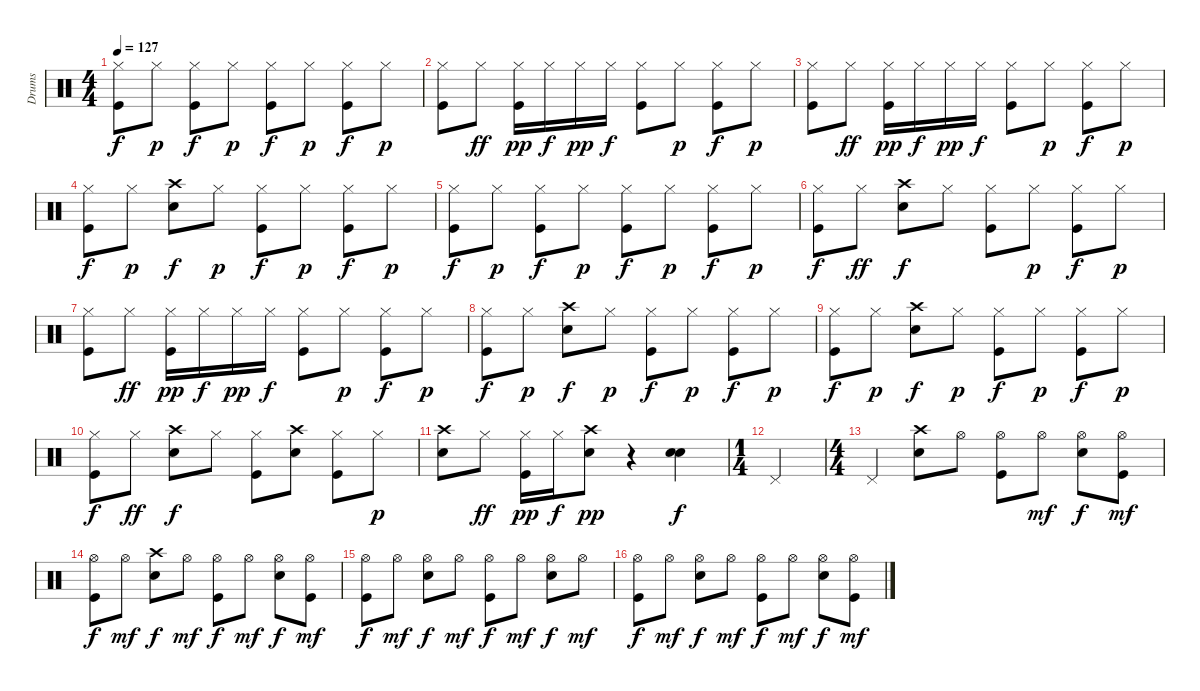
\track ("Drums" "Drums") {instrument percussion}
\staff {score}
\articulation defaults
\ts (4 4)
\tempo 127
\clef neutral
\ks c
("Hi-Hat (closed)" "Kick (hit)").8{dy f} "Hi-Hat (closed)".8{dy p} ("Hi-Hat (closed)" "Kick (hit)").8{dy f} "Hi-Hat (closed)".8{dy p} ("Hi-Hat (closed)" "Kick (hit)").8{dy f} "Hi-Hat (closed)".8{dy p} ("Hi-Hat (closed)" "Kick (hit)").8{dy f} "Hi-Hat (closed)".8{dy p} |
("Hi-Hat (closed)" "Kick (hit)").8 "Hi-Hat (closed)".8{dy ff} ("Hi-Hat (closed)" "Kick (hit)").16{dy pp} "Hi-Hat (closed)".16{dy f} "Hi-Hat (closed)".16{dy pp} "Hi-Hat (closed)".16{dy f} ("Hi-Hat (closed)" "Kick (hit)").8 "Hi-Hat (closed)".8{dy p} ("Hi-Hat (closed)" "Kick (hit)").8{dy f} "Hi-Hat (closed)".8{dy p} |
("Hi-Hat (closed)" "Kick (hit)").8 "Hi-Hat (closed)".8{dy ff} ("Hi-Hat (closed)" "Kick (hit)").16{dy pp} "Hi-Hat (closed)".16{dy f} "Hi-Hat (closed)".16{dy pp} "Hi-Hat (closed)".16{dy f} ("Hi-Hat (closed)" "Kick (hit)").8 "Hi-Hat (closed)".8{dy p} ("Hi-Hat (closed)" "Kick (hit)").8{dy f} "Hi-Hat (closed)".8{dy p} |
("Hi-Hat (closed)" "Kick (hit)").8{dy f} "Hi-Hat (closed)".8{dy p} ("Crash high (hit)" "Snare (hit) 2").8{dy f} "Hi-Hat (closed)".8{dy p} ("Hi-Hat (closed)" "Kick (hit)").8{dy f} "Hi-Hat (closed)".8{dy p} ("Hi-Hat (closed)" "Kick (hit)").8{dy f} "Hi-Hat (closed)".8{dy p} |
("Hi-Hat (closed)" "Kick (hit)").8{dy f} "Hi-Hat (closed)".8{dy p} ("Hi-Hat (closed)" "Kick (hit)").8{dy f} "Hi-Hat (closed)".8{dy p} ("Hi-Hat (closed)" "Kick (hit)").8{dy f} "Hi-Hat (closed)".8{dy p} ("Hi-Hat (closed)" "Kick (hit)").8{dy f} "Hi-Hat (closed)".8{dy p} |
("Hi-Hat (closed)" "Kick (hit)").8{dy f} "Hi-Hat (closed)".8{dy ff} ("Crash high (hit)" "Snare (hit) 2").8{dy f} "Hi-Hat (closed)".8 ("Hi-Hat (closed)" "Kick (hit)").8 "Hi-Hat (closed)".8{dy p} ("Hi-Hat (closed)" "Kick (hit)").8{dy f} "Hi-Hat (closed)".8{dy p} |
("Hi-Hat (closed)" "Kick (hit)").8 "Hi-Hat (closed)".8{dy ff} ("Hi-Hat (closed)" "Kick (hit)").16{dy pp} "Hi-Hat (closed)".16{dy f} "Hi-Hat (closed)".16{dy pp} "Hi-Hat (closed)".16{dy f} ("Hi-Hat (closed)" "Kick (hit)").8 "Hi-Hat (closed)".8{dy p} ("Hi-Hat (closed)" "Kick (hit)").8{dy f} "Hi-Hat (closed)".8{dy p} |
("Hi-Hat (closed)" "Kick (hit)").8{dy f} "Hi-Hat (closed)".8{dy p} ("Crash high (hit)" "Snare (hit) 2").8{dy f} "Hi-Hat (closed)".8{dy p} ("Hi-Hat (closed)" "Kick (hit)").8{dy f} "Hi-Hat (closed)".8{dy p} ("Hi-Hat (closed)" "Kick (hit)").8{dy f} "Hi-Hat (closed)".8{dy p} |
("Hi-Hat (closed)" "Kick (hit)").8{dy f} "Hi-Hat (closed)".8{dy p} ("Crash high (hit)" "Snare (hit) 2").8{dy f} "Hi-Hat (closed)".8{dy p} ("Hi-Hat (closed)" "Kick (hit)").8{dy f} "Hi-Hat (closed)".8{dy p} ("Hi-Hat (closed)" "Kick (hit)").8{dy f} "Hi-Hat (closed)".8{dy p} |
("Hi-Hat (closed)" "Kick (hit)").8{dy f} "Hi-Hat (closed)".8{dy ff} ("Crash high (hit)" "Snare (hit) 2").8{dy f} "Hi-Hat (closed)".8 ("Hi-Hat (closed)" "Kick (hit)").8 ("Crash high (hit)" "Snare (hit) 2").8 ("Hi-Hat (closed)" "Kick (hit)").8 "Hi-Hat (closed)".8{dy p} |
("Crash high (hit)" "Snare (hit) 2").8 "Hi-Hat (closed)".8{dy ff} ("Hi-Hat (closed)" "Kick (hit)").16{dy pp} "Hi-Hat (closed)".16{dy f} ("Crash high (hit)" "Snare (hit) 2").8{dy pp} r.4 ("Electric Snare (hit)" "Snare (hit) 2").4{dy f} |
\ts (1 4)
"Pedal Hi-Hat (hit)".4 |
\ts (4 4)
"Pedal Hi-Hat (hit)".4 ("Crash high (hit)" "Snare (hit) 2").8 "Hi-Hat (open)".8 ("Hi-Hat (open)" "Kick (hit)").8 "Hi-Hat (open)".8{dy mf} ("Hi-Hat (open)" "Snare (hit) 2").8{dy f} ("Hi-Hat (open)" "Kick (hit)").8{dy mf} |
("Hi-Hat (open)" "Kick (hit)").8{dy f} "Hi-Hat (open)".8{dy mf} ("Crash high (hit)" "Snare (hit) 2").8{dy f} "Hi-Hat (open)".8{dy mf} ("Hi-Hat (open)" "Kick (hit)").8{dy f} "Hi-Hat (open)".8{dy mf} ("Hi-Hat (open)" "Snare (hit) 2").8{dy f} ("Hi-Hat (open)" "Kick (hit)").8{dy mf} |
("Hi-Hat (open)" "Kick (hit)").8{dy f} "Hi-Hat (open)".8{dy mf} ("Hi-Hat (open)" "Snare (hit) 2").8{dy f} "Hi-Hat (open)".8{dy mf} ("Hi-Hat (open)" "Kick (hit)").8{dy f} "Hi-Hat (open)".8{dy mf} ("Hi-Hat (open)" "Snare (hit) 2").8{dy f} "Hi-Hat (open)".8{dy mf} |
("Hi-Hat (open)" "Kick (hit)").8{dy f} "Hi-Hat (open)".8{dy mf} ("Hi-Hat (open)" "Snare (hit) 2").8{dy f} "Hi-Hat (open)".8{dy mf} ("Hi-Hat (open)" "Kick (hit)").8{dy f} "Hi-Hat (open)".8{dy mf} ("Hi-Hat (open)" "Snare (hit) 2").8{dy f} ("Hi-Hat (open)" "Kick (hit)").8{dy mf}
